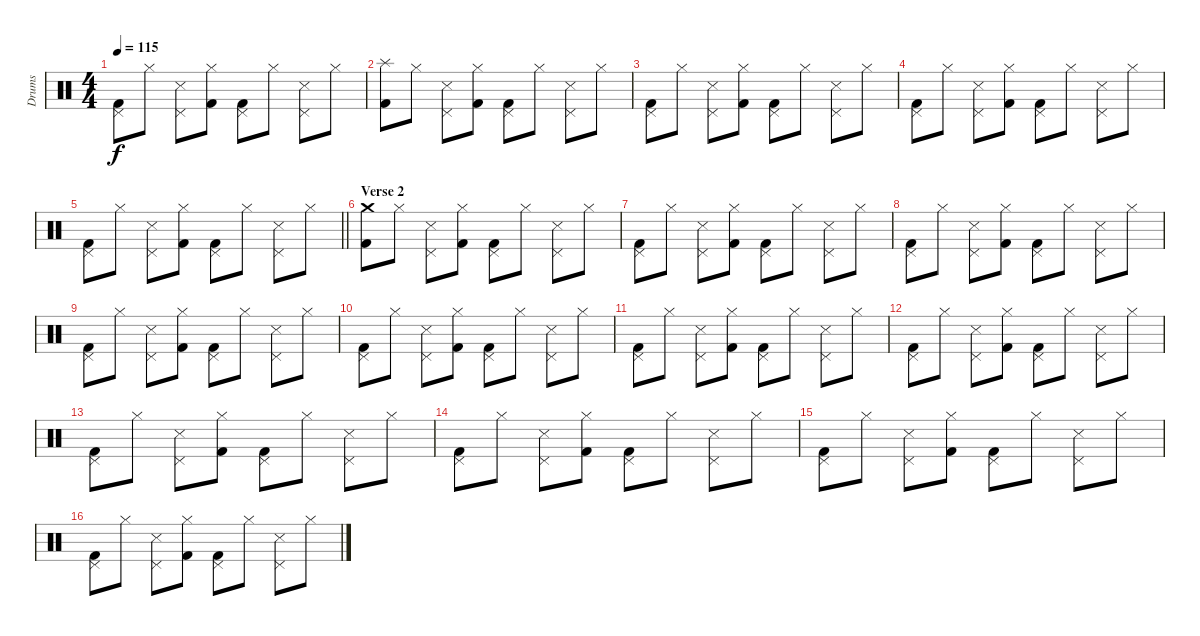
\track ("Drums" "Drums") {instrument percussion}
\staff {score}
\articulation defaults
\ts (4 4)
\tempo 115
\clef neutral
\ks c
("Pedal Hi-Hat (hit)" "Kick (hit) 2").8{dy f} "Hi-Hat (closed)".8 ("Pedal Hi-Hat (hit)" "Snare (side stick) 3").8 ("Hi-Hat (closed)" "Kick (hit) 2").8 ("Pedal Hi-Hat (hit)" "Kick (hit) 2").8 "Hi-Hat (closed)".8 ("Pedal Hi-Hat (hit)" "Snare (side stick) 3").8 "Hi-Hat (closed)".8 |
("Splash (hit)" "Kick (hit) 2").8 "Hi-Hat (closed)".8 ("Pedal Hi-Hat (hit)" "Snare (side stick) 3").8 ("Hi-Hat (closed)" "Kick (hit) 2").8 ("Pedal Hi-Hat (hit)" "Kick (hit) 2").8 "Hi-Hat (closed)".8 ("Pedal Hi-Hat (hit)" "Snare (side stick) 3").8 "Hi-Hat (closed)".8 |
("Pedal Hi-Hat (hit)" "Kick (hit) 2").8 "Hi-Hat (closed)".8 ("Pedal Hi-Hat (hit)" "Snare (side stick) 3").8 ("Hi-Hat (closed)" "Kick (hit) 2").8 ("Pedal Hi-Hat (hit)" "Kick (hit) 2").8 "Hi-Hat (closed)".8 ("Pedal Hi-Hat (hit)" "Snare (side stick) 3").8 "Hi-Hat (closed)".8 |
("Pedal Hi-Hat (hit)" "Kick (hit) 2").8 "Hi-Hat (closed)".8 ("Pedal Hi-Hat (hit)" "Snare (side stick) 3").8 ("Hi-Hat (closed)" "Kick (hit) 2").8 ("Pedal Hi-Hat (hit)" "Kick (hit) 2").8 "Hi-Hat (closed)".8 ("Pedal Hi-Hat (hit)" "Snare (side stick) 3").8 "Hi-Hat (closed)".8 |
\barLineRight lightlight
("Pedal Hi-Hat (hit)" "Kick (hit) 2").8 "Hi-Hat (closed)".8 ("Pedal Hi-Hat (hit)" "Snare (side stick) 3").8 ("Hi-Hat (closed)" "Kick (hit) 2").8 ("Pedal Hi-Hat (hit)" "Kick (hit) 2").8 "Hi-Hat (closed)".8 ("Pedal Hi-Hat (hit)" "Snare (side stick) 3").8 "Hi-Hat (closed)".8 |
\section ("" "Verse 2")
("Crash medium (hit)" "Kick (hit) 2").8 "Hi-Hat (closed)".8 ("Pedal Hi-Hat (hit)" "Snare (side stick) 3").8 ("Hi-Hat (closed)" "Kick (hit) 2").8 ("Pedal Hi-Hat (hit)" "Kick (hit) 2").8 "Hi-Hat (closed)".8 ("Pedal Hi-Hat (hit)" "Snare (side stick) 3").8 "Hi-Hat (closed)".8 |
("Pedal Hi-Hat (hit)" "Kick (hit) 2").8 "Hi-Hat (closed)".8 ("Pedal Hi-Hat (hit)" "Snare (side stick) 3").8 ("Hi-Hat (closed)" "Kick (hit) 2").8 ("Pedal Hi-Hat (hit)" "Kick (hit) 2").8 "Hi-Hat (closed)".8 ("Pedal Hi-Hat (hit)" "Snare (side stick) 3").8 "Hi-Hat (closed)".8 |
("Pedal Hi-Hat (hit)" "Kick (hit) 2").8 "Hi-Hat (closed)".8 ("Pedal Hi-Hat (hit)" "Snare (side stick) 3").8 ("Hi-Hat (closed)" "Kick (hit) 2").8 ("Pedal Hi-Hat (hit)" "Kick (hit) 2").8 "Hi-Hat (closed)".8 ("Pedal Hi-Hat (hit)" "Snare (side stick) 3").8 "Hi-Hat (closed)".8 |
("Pedal Hi-Hat (hit)" "Kick (hit) 2").8 "Hi-Hat (closed)".8 ("Pedal Hi-Hat (hit)" "Snare (side stick) 3").8 ("Hi-Hat (closed)" "Kick (hit) 2").8 ("Pedal Hi-Hat (hit)" "Kick (hit) 2").8 "Hi-Hat (closed)".8 ("Pedal Hi-Hat (hit)" "Snare (side stick) 3").8 "Hi-Hat (closed)".8 |
("Pedal Hi-Hat (hit)" "Kick (hit) 2").8 "Hi-Hat (closed)".8 ("Pedal Hi-Hat (hit)" "Snare (side stick) 3").8 ("Hi-Hat (closed)" "Kick (hit) 2").8 ("Pedal Hi-Hat (hit)" "Kick (hit) 2").8 "Hi-Hat (closed)".8 ("Pedal Hi-Hat (hit)" "Snare (side stick) 3").8 "Hi-Hat (closed)".8 |
("Pedal Hi-Hat (hit)" "Kick (hit) 2").8 "Hi-Hat (closed)".8 ("Pedal Hi-Hat (hit)" "Snare (side stick) 3").8 ("Hi-Hat (closed)" "Kick (hit) 2").8 ("Pedal Hi-Hat (hit)" "Kick (hit) 2").8 "Hi-Hat (closed)".8 ("Pedal Hi-Hat (hit)" "Snare (side stick) 3").8 "Hi-Hat (closed)".8 |
("Pedal Hi-Hat (hit)" "Kick (hit) 2").8 "Hi-Hat (closed)".8 ("Pedal Hi-Hat (hit)" "Snare (side stick) 3").8 ("Hi-Hat (closed)" "Kick (hit) 2").8 ("Pedal Hi-Hat (hit)" "Kick (hit) 2").8 "Hi-Hat (closed)".8 ("Pedal Hi-Hat (hit)" "Snare (side stick) 3").8 "Hi-Hat (closed)".8 |
("Pedal Hi-Hat (hit)" "Kick (hit) 2").8 "Hi-Hat (closed)".8 ("Pedal Hi-Hat (hit)" "Snare (side stick) 3").8 ("Hi-Hat (closed)" "Kick (hit) 2").8 ("Pedal Hi-Hat (hit)" "Kick (hit) 2").8 "Hi-Hat (closed)".8 ("Pedal Hi-Hat (hit)" "Snare (side stick) 3").8 "Hi-Hat (closed)".8 |
("Pedal Hi-Hat (hit)" "Kick (hit) 2").8 "Hi-Hat (closed)".8 ("Pedal Hi-Hat (hit)" "Snare (side stick) 3").8 ("Hi-Hat (closed)" "Kick (hit) 2").8 ("Pedal Hi-Hat (hit)" "Kick (hit) 2").8 "Hi-Hat (closed)".8 ("Pedal Hi-Hat (hit)" "Snare (side stick) 3").8 "Hi-Hat (closed)".8 |
("Pedal Hi-Hat (hit)" "Kick (hit) 2").8 "Hi-Hat (closed)".8 ("Pedal Hi-Hat (hit)" "Snare (side stick) 3").8 ("Hi-Hat (closed)" "Kick (hit) 2").8 ("Pedal Hi-Hat (hit)" "Kick (hit) 2").8 "Hi-Hat (closed)".8 ("Pedal Hi-Hat (hit)" "Snare (side stick) 3").8 "Hi-Hat (closed)".8 |
("Pedal Hi-Hat (hit)" "Kick (hit) 2").8 "Hi-Hat (closed)".8 ("Pedal Hi-Hat (hit)" "Snare (side stick) 3").8 ("Hi-Hat (closed)" "Kick (hit) 2").8 ("Pedal Hi-Hat (hit)" "Kick (hit) 2").8 "Hi-Hat (closed)".8 ("Pedal Hi-Hat (hit)" "Snare (side stick) 3").8 "Hi-Hat (closed)".8
